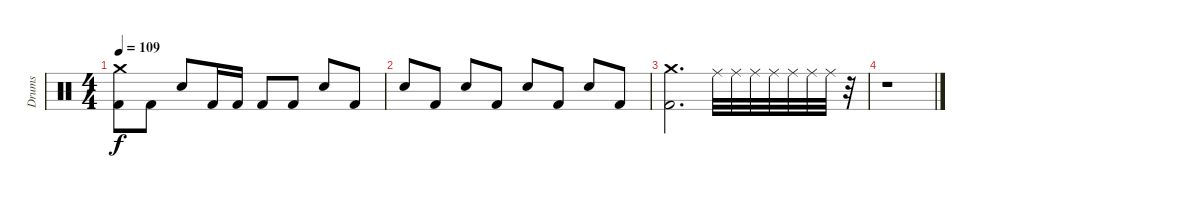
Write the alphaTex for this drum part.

\track ("Drums" "Drums") {instrument percussion}
\staff {score}
\articulation defaults
\ts (4 4)
\tempo 109
\clef neutral
\ks c
("Crash medium (hit)" "Kick (hit) 2").8{dy f} "Kick (hit) 2".8 "Snare (hit) 2".8 "Kick (hit) 2".16 "Kick (hit) 2".16 "Kick (hit) 2".8 "Kick (hit) 2".8 "Snare (hit) 2".8 "Kick (hit) 2".8 |
"Snare (hit) 2".8 "Kick (hit) 2".8 "Snare (hit) 2".8 "Kick (hit) 2".8 "Snare (hit) 2".8 "Kick (hit) 2".8 "Snare (hit) 2".8 "Kick (hit) 2".8 |
("Kick (hit) 2" "Crash medium (hit)").2{d} "Ride (middle)".32 "Ride (middle)".32 "Ride (middle)".32 "Ride (middle)".32 "Ride (middle)".32 "Ride (middle)".32 "Ride (middle)".32 r.32 |
r.1
